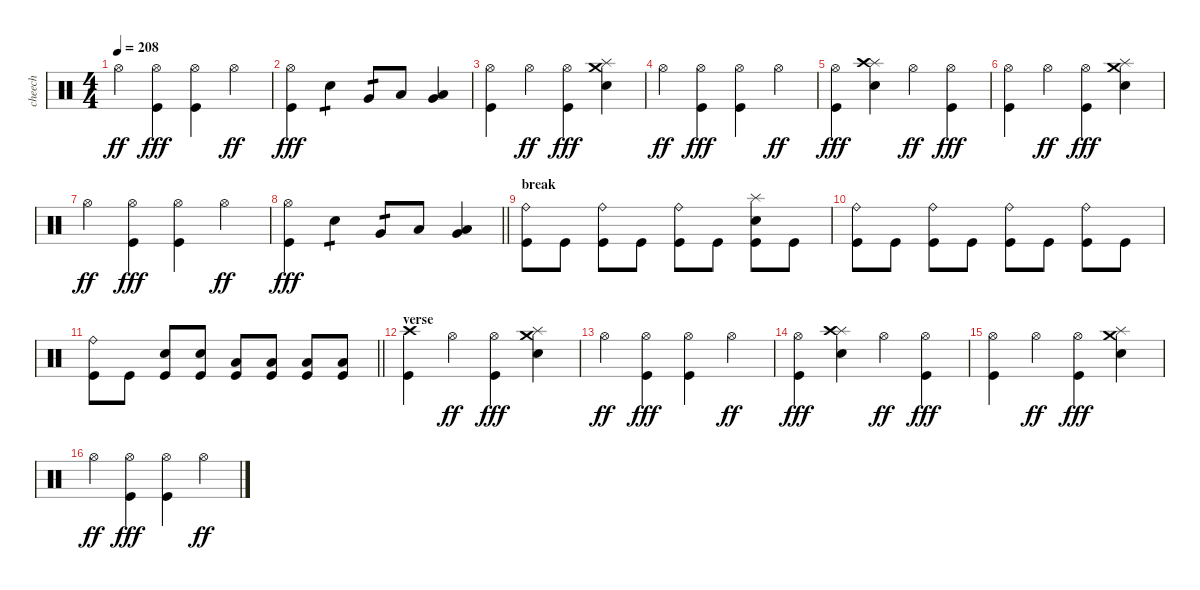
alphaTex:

\track ("cheech" "cheech") {instrument percussion}
\staff {score}
\articulation defaults
\ts (4 4)
\tempo 208
\clef neutral
\ks c "Hi-Hat (open)".4{dy ff}
("Hi-Hat (open)" "Kick (hit)").4{dy fff} ("Hi-Hat (open)" "Kick (hit)").4 "Hi-Hat (open)".4{dy ff} |
("Hi-Hat (open)" "Kick (hit)").4{dy fff} "Electric Snare (hit)".4{tp 1} "Very Low Tom (hit)".8{tp 1} "Low Tom (hit)".8 ("Very Low Tom (hit)" "Low Floor Tom (hit)").4 |
("Hi-Hat (open)" "Kick (hit)").4 "Hi-Hat (open)".4{dy ff} ("Hi-Hat (open)" "Kick (hit)").4{dy fff} ("Splash (hit)" "Crash medium (hit)" "Electric Snare (hit)").4 |
"Hi-Hat (open)".4{dy ff} ("Hi-Hat (open)" "Kick (hit)").4{dy fff} ("Hi-Hat (open)" "Kick (hit)").4 "Hi-Hat (open)".4{dy ff} |
("Hi-Hat (open)" "Kick (hit)").4{dy fff} ("Splash (hit)" "Crash high (hit)" "Electric Snare (hit)").4 "Hi-Hat (open)".4{dy ff} ("Hi-Hat (open)" "Kick (hit)").4{dy fff} |
("Hi-Hat (open)" "Kick (hit)").4 "Hi-Hat (open)".4{dy ff} ("Hi-Hat (open)" "Kick (hit)").4{dy fff} ("Splash (hit)" "Crash medium (hit)" "Electric Snare (hit)").4 |
"Hi-Hat (open)".4{dy ff} ("Hi-Hat (open)" "Kick (hit)").4{dy fff} ("Hi-Hat (open)" "Kick (hit)").4 "Hi-Hat (open)".4{dy ff} |
\barLineRight lightlight
("Hi-Hat (open)" "Kick (hit)").4{dy fff} "Electric Snare (hit)".4{tp 1} "Very Low Tom (hit)".8{tp 1} "Low Tom (hit)".8 ("Very Low Tom (hit)" "Low Floor Tom (hit)").4 |
\section ("" "break")
("Ride (bell)" "Kick (hit)").8 "Kick (hit)".8 ("Ride (bell)" "Kick (hit)").8 "Kick (hit)".8 ("Ride (bell)" "Kick (hit)").8 "Kick (hit)".8 ("Splash (hit)" "Electric Snare (hit)" "Kick (hit)").8 "Kick (hit)".8 |
("Ride (bell)" "Kick (hit)").8 "Kick (hit)".8 ("Ride (bell)" "Kick (hit)").8 "Kick (hit)".8 ("Ride (bell)" "Kick (hit)").8 "Kick (hit)".8 ("Ride (bell)" "Kick (hit)").8 "Kick (hit)".8 |
\barLineRight lightlight
("Ride (bell)" "Kick (hit)").8 "Kick (hit)".8 ("Electric Snare (hit)" "Kick (hit)").8 ("Electric Snare (hit)" "Kick (hit)").8 ("Low Tom (hit)" "Kick (hit)").8 ("Low Tom (hit)" "Kick (hit)").8 ("Low Floor Tom (hit)" "Kick (hit)").8 ("Low Floor Tom (hit)" "Kick (hit)").8 |
\section ("" "verse")
("Crash high (hit)" "Kick (hit)").4 "Hi-Hat (open)".4{dy ff} ("Hi-Hat (open)" "Kick (hit)").4{dy fff} ("Splash (hit)" "Crash medium (hit)" "Electric Snare (hit)").4 |
"Hi-Hat (open)".4{dy ff} ("Hi-Hat (open)" "Kick (hit)").4{dy fff} ("Hi-Hat (open)" "Kick (hit)").4 "Hi-Hat (open)".4{dy ff} |
("Hi-Hat (open)" "Kick (hit)").4{dy fff} ("Splash (hit)" "Crash high (hit)" "Electric Snare (hit)").4 "Hi-Hat (open)".4{dy ff} ("Hi-Hat (open)" "Kick (hit)").4{dy fff} |
("Hi-Hat (open)" "Kick (hit)").4 "Hi-Hat (open)".4{dy ff} ("Hi-Hat (open)" "Kick (hit)").4{dy fff} ("Splash (hit)" "Crash medium (hit)" "Electric Snare (hit)").4 |
"Hi-Hat (open)".4{dy ff} ("Hi-Hat (open)" "Kick (hit)").4{dy fff} ("Hi-Hat (open)" "Kick (hit)").4 "Hi-Hat (open)".4{dy ff}
